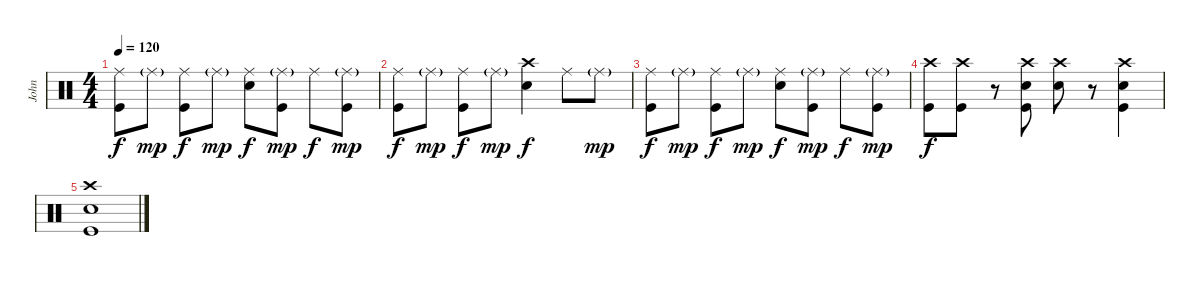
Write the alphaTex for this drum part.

\track ("John" "John") {instrument percussion}
\staff {score}
\articulation defaults
\ts (4 4)
\tempo 120
\clef neutral
\ks c
("Ride (middle)" "Kick (hit)").8{dy f} "Ride (middle)"{g}.8{dy mp} ("Ride (middle)" "Kick (hit)").8{dy f} "Ride (middle)"{g}.8{dy mp} ("Ride (middle)" "Snare (hit) 2").8{dy f} ("Ride (middle)"{g} "Kick (hit)").8{dy mp} "Ride (middle)".8{dy f} ("Ride (middle)"{g} "Kick (hit)").8{dy mp} |
("Ride (middle)" "Kick (hit)").8{dy f} "Ride (middle)"{g}.8{dy mp} ("Ride (middle)" "Kick (hit)").8{dy f} "Ride (middle)"{g}.8{dy mp} ("Crash high (hit)" "Snare (hit) 2").4{dy f} "Ride (middle)".8 "Ride (middle)"{g}.8{dy mp} |
("Ride (middle)" "Kick (hit)").8{dy f} "Ride (middle)"{g}.8{dy mp} ("Ride (middle)" "Kick (hit)").8{dy f} "Ride (middle)"{g}.8{dy mp} ("Ride (middle)" "Snare (hit) 2").8{dy f} ("Ride (middle)"{g} "Kick (hit)").8{dy mp} "Ride (middle)".8{dy f} ("Ride (middle)"{g} "Kick (hit)").8{dy mp} |
("Crash high (hit)" "Kick (hit)").8{dy f} ("Crash high (hit)" "Kick (hit)").8 r.8 ("Crash high (hit)" "Snare (hit) 2" "Kick (hit)").8 ("Crash high (hit)" "Snare (hit) 2").8 r.8 ("Crash high (hit)" "Snare (hit) 2" "Kick (hit)").4 |
("Crash high (hit)" "Snare (hit) 2" "Kick (hit)").1
